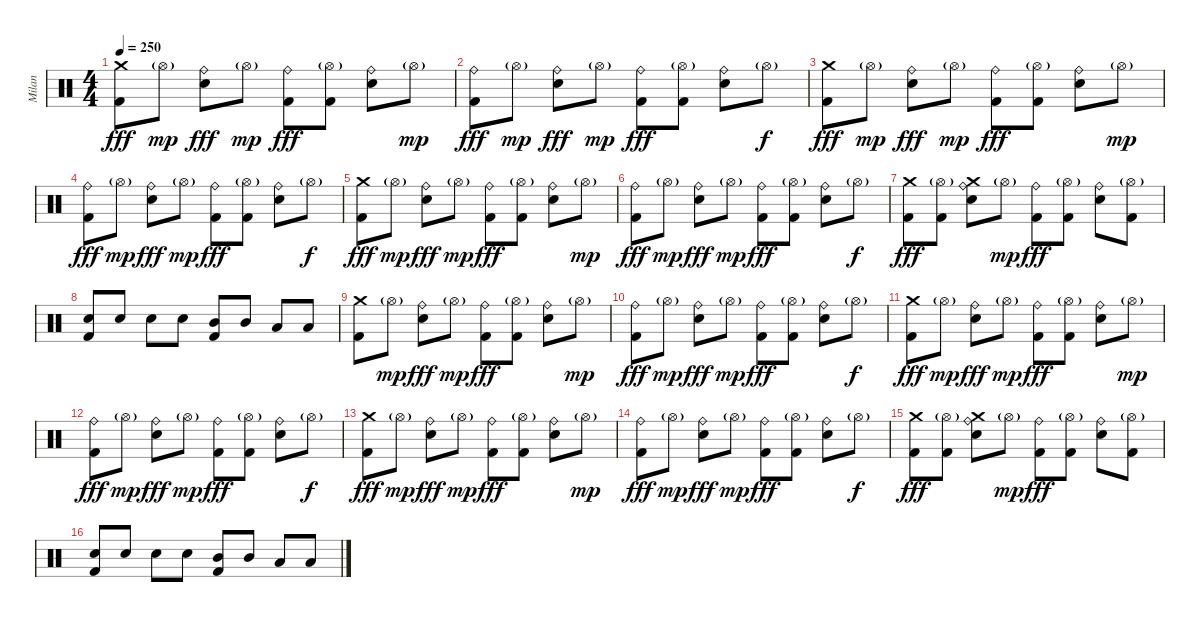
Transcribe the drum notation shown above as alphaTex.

\track ("Milan" "Milan") {instrument percussion}
\staff {score}
\articulation defaults
\ts (4 4)
\tempo 250
\clef neutral
\ks c
("Crash medium (hit)" "Kick (hit) 2").8{dy fff} "Hi-Hat (open)"{g}.8{dy mp} ("Ride (bell)" "Snare (hit) 2").8{dy fff} "Hi-Hat (open)"{g}.8{dy mp} ("Ride (bell)" "Kick (hit) 2").8{dy fff} ("Hi-Hat (open)"{g} "Kick (hit) 2").8 ("Ride (bell)" "Snare (hit) 2").8 "Hi-Hat (open)"{g}.8{dy mp} |
("Ride (bell)" "Kick (hit) 2").8{dy fff} "Hi-Hat (open)"{g}.8{dy mp} ("Ride (bell)" "Snare (hit) 2").8{dy fff} "Hi-Hat (open)"{g}.8{dy mp} ("Ride (bell)" "Kick (hit) 2").8{dy fff} ("Hi-Hat (open)"{g} "Kick (hit) 2").8 ("Ride (bell)" "Snare (hit) 2").8 "Hi-Hat (open)"{g}.8{dy f} |
("Crash medium (hit)" "Kick (hit) 2").8{dy fff} "Hi-Hat (open)"{g}.8{dy mp} ("Ride (bell)" "Snare (hit) 2").8{dy fff} "Hi-Hat (open)"{g}.8{dy mp} ("Ride (bell)" "Kick (hit) 2").8{dy fff} ("Hi-Hat (open)"{g} "Kick (hit) 2").8 ("Ride (bell)" "Snare (hit) 2").8 "Hi-Hat (open)"{g}.8{dy mp} |
("Ride (bell)" "Kick (hit) 2").8{dy fff} "Hi-Hat (open)"{g}.8{dy mp} ("Ride (bell)" "Snare (hit) 2").8{dy fff} "Hi-Hat (open)"{g}.8{dy mp} ("Ride (bell)" "Kick (hit) 2").8{dy fff} ("Hi-Hat (open)"{g} "Kick (hit) 2").8 ("Ride (bell)" "Snare (hit) 2").8 "Hi-Hat (open)"{g}.8{dy f} |
("Crash medium (hit)" "Kick (hit) 2").8{dy fff} "Hi-Hat (open)"{g}.8{dy mp} ("Ride (bell)" "Snare (hit) 2").8{dy fff} "Hi-Hat (open)"{g}.8{dy mp} ("Ride (bell)" "Kick (hit) 2").8{dy fff} ("Hi-Hat (open)"{g} "Kick (hit) 2").8 ("Ride (bell)" "Snare (hit) 2").8 "Hi-Hat (open)"{g}.8{dy mp} |
("Ride (bell)" "Kick (hit) 2").8{dy fff} "Hi-Hat (open)"{g}.8{dy mp} ("Ride (bell)" "Snare (hit) 2").8{dy fff} "Hi-Hat (open)"{g}.8{dy mp} ("Ride (bell)" "Kick (hit) 2").8{dy fff} ("Hi-Hat (open)"{g} "Kick (hit) 2").8 ("Ride (bell)" "Snare (hit) 2").8 "Hi-Hat (open)"{g}.8{dy f} |
("Crash medium (hit)" "Kick (hit) 2").8{dy fff} ("Hi-Hat (open)"{g} "Kick (hit) 2").8 ("Crash medium (hit)" "Ride (bell)" "Snare (hit) 2").8 "Hi-Hat (open)"{g}.8{dy mp} ("Ride (bell)" "Kick (hit) 2").8{dy fff} ("Hi-Hat (open)"{g} "Kick (hit) 2").8 ("Ride (bell)" "Snare (hit) 2").8 ("Hi-Hat (open)"{g} "Kick (hit) 2").8 |
("Snare (hit) 2" "Kick (hit) 2").8 "Snare (hit) 2".8 "Snare (hit) 2".8 "Snare (hit) 2".8 ("Mid Tom (hit)" "Kick (hit) 2").8 "Mid Tom (hit)".8 "Low Tom (hit)".8 "Low Tom (hit)".8 |
("Crash medium (hit)" "Kick (hit) 2").8 "Hi-Hat (open)"{g}.8{dy mp} ("Ride (bell)" "Snare (hit) 2").8{dy fff} "Hi-Hat (open)"{g}.8{dy mp} ("Ride (bell)" "Kick (hit) 2").8{dy fff} ("Hi-Hat (open)"{g} "Kick (hit) 2").8 ("Ride (bell)" "Snare (hit) 2").8 "Hi-Hat (open)"{g}.8{dy mp} |
("Ride (bell)" "Kick (hit) 2").8{dy fff} "Hi-Hat (open)"{g}.8{dy mp} ("Ride (bell)" "Snare (hit) 2").8{dy fff} "Hi-Hat (open)"{g}.8{dy mp} ("Ride (bell)" "Kick (hit) 2").8{dy fff} ("Hi-Hat (open)"{g} "Kick (hit) 2").8 ("Ride (bell)" "Snare (hit) 2").8 "Hi-Hat (open)"{g}.8{dy f} |
("Crash medium (hit)" "Kick (hit) 2").8{dy fff} "Hi-Hat (open)"{g}.8{dy mp} ("Ride (bell)" "Snare (hit) 2").8{dy fff} "Hi-Hat (open)"{g}.8{dy mp} ("Ride (bell)" "Kick (hit) 2").8{dy fff} ("Hi-Hat (open)"{g} "Kick (hit) 2").8 ("Ride (bell)" "Snare (hit) 2").8 "Hi-Hat (open)"{g}.8{dy mp} |
("Ride (bell)" "Kick (hit) 2").8{dy fff} "Hi-Hat (open)"{g}.8{dy mp} ("Ride (bell)" "Snare (hit) 2").8{dy fff} "Hi-Hat (open)"{g}.8{dy mp} ("Ride (bell)" "Kick (hit) 2").8{dy fff} ("Hi-Hat (open)"{g} "Kick (hit) 2").8 ("Ride (bell)" "Snare (hit) 2").8 "Hi-Hat (open)"{g}.8{dy f} |
("Crash medium (hit)" "Kick (hit) 2").8{dy fff} "Hi-Hat (open)"{g}.8{dy mp} ("Ride (bell)" "Snare (hit) 2").8{dy fff} "Hi-Hat (open)"{g}.8{dy mp} ("Ride (bell)" "Kick (hit) 2").8{dy fff} ("Hi-Hat (open)"{g} "Kick (hit) 2").8 ("Ride (bell)" "Snare (hit) 2").8 "Hi-Hat (open)"{g}.8{dy mp} |
("Ride (bell)" "Kick (hit) 2").8{dy fff} "Hi-Hat (open)"{g}.8{dy mp} ("Ride (bell)" "Snare (hit) 2").8{dy fff} "Hi-Hat (open)"{g}.8{dy mp} ("Ride (bell)" "Kick (hit) 2").8{dy fff} ("Hi-Hat (open)"{g} "Kick (hit) 2").8 ("Ride (bell)" "Snare (hit) 2").8 "Hi-Hat (open)"{g}.8{dy f} |
("Crash medium (hit)" "Kick (hit) 2").8{dy fff} ("Hi-Hat (open)"{g} "Kick (hit) 2").8 ("Crash medium (hit)" "Ride (bell)" "Snare (hit) 2").8 "Hi-Hat (open)"{g}.8{dy mp} ("Ride (bell)" "Kick (hit) 2").8{dy fff} ("Hi-Hat (open)"{g} "Kick (hit) 2").8 ("Ride (bell)" "Snare (hit) 2").8 ("Hi-Hat (open)"{g} "Kick (hit) 2").8 |
("Snare (hit) 2" "Kick (hit) 2").8 "Snare (hit) 2".8 "Snare (hit) 2".8 "Snare (hit) 2".8 ("Mid Tom (hit)" "Kick (hit) 2").8 "Mid Tom (hit)".8 "Low Tom (hit)".8 "Low Tom (hit)".8
